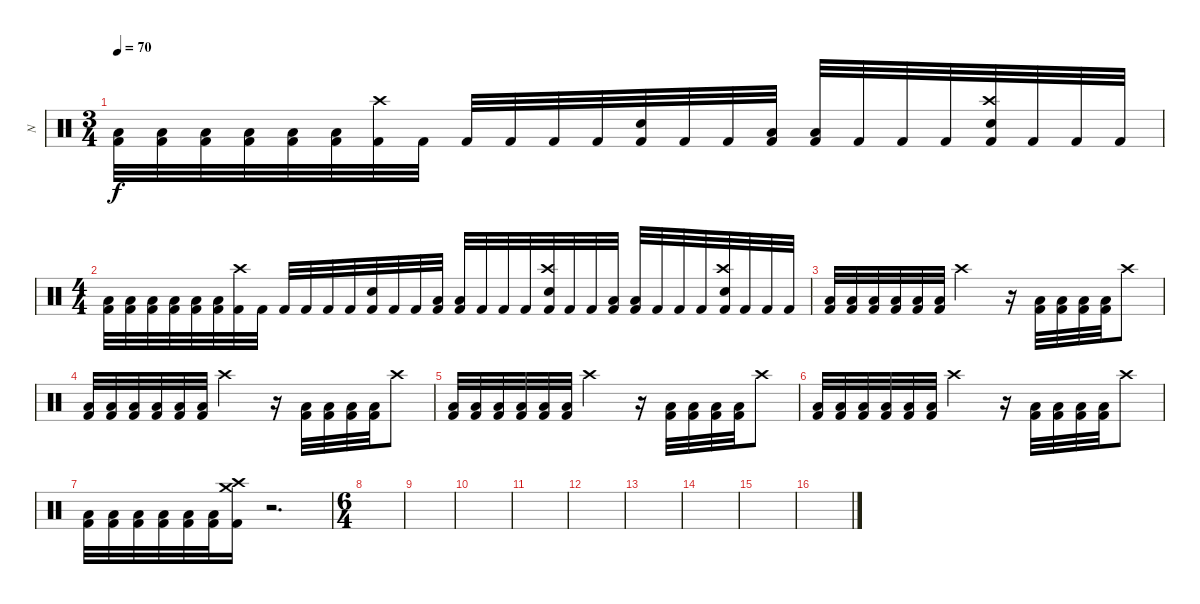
\track ("N" "N") {instrument percussion}
\staff {score}
\articulation defaults
\ts (3 4)
\tempo 70
\clef neutral
\ks c
("Low Tom (hit)" "Kick (hit) 2").32{dy f} ("Low Tom (hit)" "Kick (hit) 2").32 ("Low Tom (hit)" "Kick (hit) 2").32 ("Low Tom (hit)" "Kick (hit) 2").32 ("Low Tom (hit)" "Kick (hit) 2").32 ("Low Tom (hit)" "Kick (hit) 2").32 ("Crash high (hit)" "Kick (hit) 2").32 "Kick (hit) 2".32 "Kick (hit) 2".32 "Kick (hit) 2".32 "Kick (hit) 2".32 "Kick (hit) 2".32 ("Electric Snare (hit)" "Kick (hit) 2").32 "Kick (hit) 2".32 "Kick (hit) 2".32 ("Low Tom (hit)" "Kick (hit) 2").32 ("Low Tom (hit)" "Kick (hit) 2").32 "Kick (hit) 2".32 "Kick (hit) 2".32 "Kick (hit) 2".32 ("Crash high (hit)" "Electric Snare (hit)" "Kick (hit) 2").32 "Kick (hit) 2".32 "Kick (hit) 2".32 "Kick (hit) 2".32 |
\ts (4 4)
("Low Tom (hit)" "Kick (hit) 2").32 ("Low Tom (hit)" "Kick (hit) 2").32 ("Low Tom (hit)" "Kick (hit) 2").32 ("Low Tom (hit)" "Kick (hit) 2").32 ("Low Tom (hit)" "Kick (hit) 2").32 ("Low Tom (hit)" "Kick (hit) 2").32 ("Crash high (hit)" "Kick (hit) 2").32 "Kick (hit) 2".32 "Kick (hit) 2".32 "Kick (hit) 2".32 "Kick (hit) 2".32 "Kick (hit) 2".32 ("Electric Snare (hit)" "Kick (hit) 2").32 "Kick (hit) 2".32 "Kick (hit) 2".32 ("Low Tom (hit)" "Kick (hit) 2").32 ("Low Tom (hit)" "Kick (hit) 2").32 "Kick (hit) 2".32 "Kick (hit) 2".32 "Kick (hit) 2".32 ("Crash high (hit)" "Electric Snare (hit)" "Kick (hit) 2").32 "Kick (hit) 2".32 "Kick (hit) 2".32 ("Low Tom (hit)" "Kick (hit) 2").32 ("Low Tom (hit)" "Kick (hit) 2").32 "Kick (hit) 2".32 "Kick (hit) 2".32 "Kick (hit) 2".32 ("Crash high (hit)" "Electric Snare (hit)" "Kick (hit) 2").32 "Kick (hit) 2".32 "Kick (hit) 2".32 "Kick (hit) 2".32 |
("Low Tom (hit)" "Kick (hit) 2").32 ("Low Tom (hit)" "Kick (hit) 2").32 ("Low Tom (hit)" "Kick (hit) 2").32 ("Low Tom (hit)" "Kick (hit) 2").32 ("Low Tom (hit)" "Kick (hit) 2").32 ("Low Tom (hit)" "Kick (hit) 2").32 "Crash high (hit)".2 r.16 ("Low Tom (hit)" "Kick (hit) 2").32 ("Low Tom (hit)" "Kick (hit) 2").32 ("Low Tom (hit)" "Kick (hit) 2").32 ("Low Tom (hit)" "Kick (hit) 2").32 "Crash high (hit)".8 |
("Low Tom (hit)" "Kick (hit) 2").32 ("Low Tom (hit)" "Kick (hit) 2").32 ("Low Tom (hit)" "Kick (hit) 2").32 ("Low Tom (hit)" "Kick (hit) 2").32 ("Low Tom (hit)" "Kick (hit) 2").32 ("Low Tom (hit)" "Kick (hit) 2").32 "Crash high (hit)".2 r.16 ("Low Tom (hit)" "Kick (hit) 2").32 ("Low Tom (hit)" "Kick (hit) 2").32 ("Low Tom (hit)" "Kick (hit) 2").32 ("Low Tom (hit)" "Kick (hit) 2").32 "Crash high (hit)".8 |
("Low Tom (hit)" "Kick (hit) 2").32 ("Low Tom (hit)" "Kick (hit) 2").32 ("Low Tom (hit)" "Kick (hit) 2").32 ("Low Tom (hit)" "Kick (hit) 2").32 ("Low Tom (hit)" "Kick (hit) 2").32 ("Low Tom (hit)" "Kick (hit) 2").32 "Crash high (hit)".2 r.16 ("Low Tom (hit)" "Kick (hit) 2").32 ("Low Tom (hit)" "Kick (hit) 2").32 ("Low Tom (hit)" "Kick (hit) 2").32 ("Low Tom (hit)" "Kick (hit) 2").32 "Crash high (hit)".8 |
("Low Tom (hit)" "Kick (hit) 2").32 ("Low Tom (hit)" "Kick (hit) 2").32 ("Low Tom (hit)" "Kick (hit) 2").32 ("Low Tom (hit)" "Kick (hit) 2").32 ("Low Tom (hit)" "Kick (hit) 2").32 ("Low Tom (hit)" "Kick (hit) 2").32 "Crash high (hit)".2 r.16 ("Low Tom (hit)" "Kick (hit) 2").32 ("Low Tom (hit)" "Kick (hit) 2").32 ("Low Tom (hit)" "Kick (hit) 2").32 ("Low Tom (hit)" "Kick (hit) 2").32 "Crash high (hit)".8 |
("Low Tom (hit)" "Kick (hit) 2").32 ("Low Tom (hit)" "Kick (hit) 2").32 ("Low Tom (hit)" "Kick (hit) 2").32 ("Low Tom (hit)" "Kick (hit) 2").32 ("Low Tom (hit)" "Kick (hit) 2").32 ("Low Tom (hit)" "Kick (hit) 2").32 ("Crash high (hit)" "Crash medium (hit)" "Kick (hit) 2").16 r.2{d} |
\ts (6 4)
\section ("" " ")
|
|
|
|
|
|
|
|
\section ("" " ")
